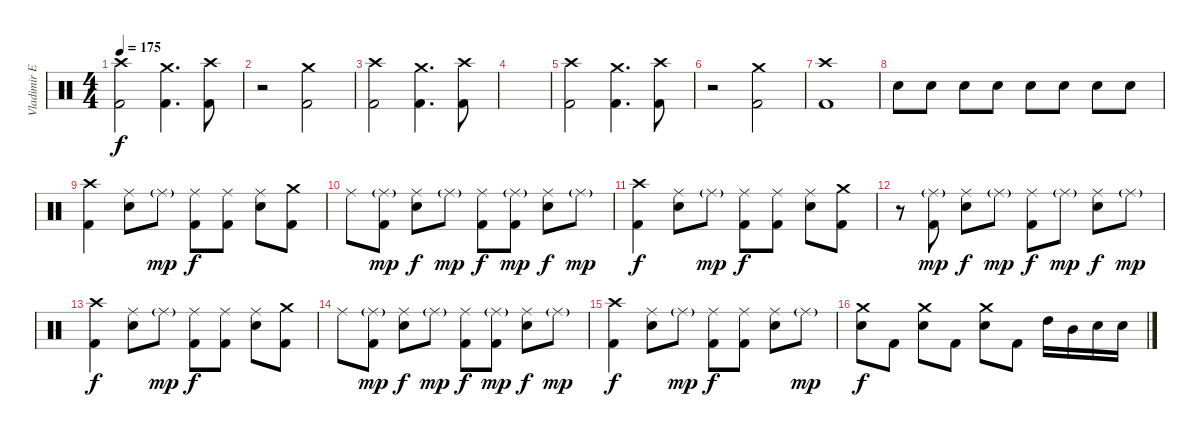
\track ("Vladimir Ermakoff" "Vladimir E") {instrument percussion}
\staff {score}
\articulation defaults
\ts (4 4)
\tempo 175
\clef neutral
\ks c
("Crash high (hit)" "Kick (hit) 2").2{dy f} ("Crash medium (hit)" "Kick (hit) 2").4{d} ("Crash high (hit)" "Kick (hit) 2").8 |
r.2 ("Crash medium (hit)" "Kick (hit) 2").2 |
("Crash high (hit)" "Kick (hit) 2").2 ("Crash medium (hit)" "Kick (hit) 2").4{d} ("Crash high (hit)" "Kick (hit) 2").8 |
|
("Crash high (hit)" "Kick (hit) 2").2 ("Crash medium (hit)" "Kick (hit) 2").4{d} ("Crash high (hit)" "Kick (hit) 2").8 |
r.2 ("Crash medium (hit)" "Kick (hit) 2").2 |
("Crash high (hit)" "Kick (hit) 2").1 |
"Electric Snare (hit)".8 "Electric Snare (hit)".8 "Electric Snare (hit)".8 "Electric Snare (hit)".8 "Electric Snare (hit)".8 "Electric Snare (hit)".8 "Electric Snare (hit)".8 "Electric Snare (hit)".8 |
("Crash high (hit)" "Kick (hit) 2").4 ("Ride (middle)" "Electric Snare (hit)").8 "Ride (middle)"{g}.8{dy mp} ("Ride (middle)" "Kick (hit) 2").8{dy f} ("Ride (middle)" "Kick (hit) 2").8 ("Ride (middle)" "Electric Snare (hit)").8 ("Crash medium (hit)" "Kick (hit) 2").8 |
"Ride (middle)".8 ("Ride (middle)"{g} "Kick (hit) 2").8{dy mp} ("Ride (middle)" "Electric Snare (hit)").8{dy f} "Ride (middle)"{g}.8{dy mp} ("Ride (middle)" "Kick (hit) 2").8{dy f} ("Ride (middle)"{g} "Kick (hit) 2").8{dy mp} ("Ride (middle)" "Electric Snare (hit)").8{dy f} "Ride (middle)"{g}.8{dy mp} |
("Crash high (hit)" "Kick (hit) 2").4{dy f} ("Ride (middle)" "Electric Snare (hit)").8 "Ride (middle)"{g}.8{dy mp} ("Ride (middle)" "Kick (hit) 2").8{dy f} ("Ride (middle)" "Kick (hit) 2").8 ("Ride (middle)" "Electric Snare (hit)").8 ("Crash medium (hit)" "Kick (hit) 2").8 |
r.8 ("Ride (middle)"{g} "Kick (hit) 2").8{dy mp} ("Ride (middle)" "Electric Snare (hit)").8{dy f} "Ride (middle)"{g}.8{dy mp} ("Ride (middle)" "Kick (hit) 2").8{dy f} "Ride (middle)"{g}.8{dy mp} ("Ride (middle)" "Electric Snare (hit)").8{dy f} "Ride (middle)"{g}.8{dy mp} |
("Crash high (hit)" "Kick (hit) 2").4{dy f} ("Ride (middle)" "Electric Snare (hit)").8 "Ride (middle)"{g}.8{dy mp} ("Ride (middle)" "Kick (hit) 2").8{dy f} ("Ride (middle)" "Kick (hit) 2").8 ("Ride (middle)" "Electric Snare (hit)").8 ("Crash medium (hit)" "Kick (hit) 2").8 |
"Ride (middle)".8 ("Ride (middle)"{g} "Kick (hit) 2").8{dy mp} ("Ride (middle)" "Electric Snare (hit)").8{dy f} "Ride (middle)"{g}.8{dy mp} ("Ride (middle)" "Kick (hit) 2").8{dy f} ("Ride (middle)"{g} "Kick (hit) 2").8{dy mp} ("Ride (middle)" "Electric Snare (hit)").8{dy f} "Ride (middle)"{g}.8{dy mp} |
("Crash high (hit)" "Kick (hit) 2").4{dy f} ("Ride (middle)" "Electric Snare (hit)").8 "Ride (middle)"{g}.8{dy mp} ("Ride (middle)" "Kick (hit) 2").8{dy f} ("Ride (middle)" "Kick (hit) 2").8 ("Ride (middle)" "Electric Snare (hit)").8 "Ride (middle)"{g}.8{dy mp} |
("Crash medium (hit)" "Electric Snare (hit)").8{dy f} "Kick (hit) 2".8 ("Crash medium (hit)" "Electric Snare (hit)").8 "Kick (hit) 2".8 ("Crash medium (hit)" "Electric Snare (hit)").8 "Kick (hit) 2".8 "High Tom (hit)".16 "Mid Tom (hit)".16 "Electric Snare (hit)".16 "Electric Snare (hit)".16
